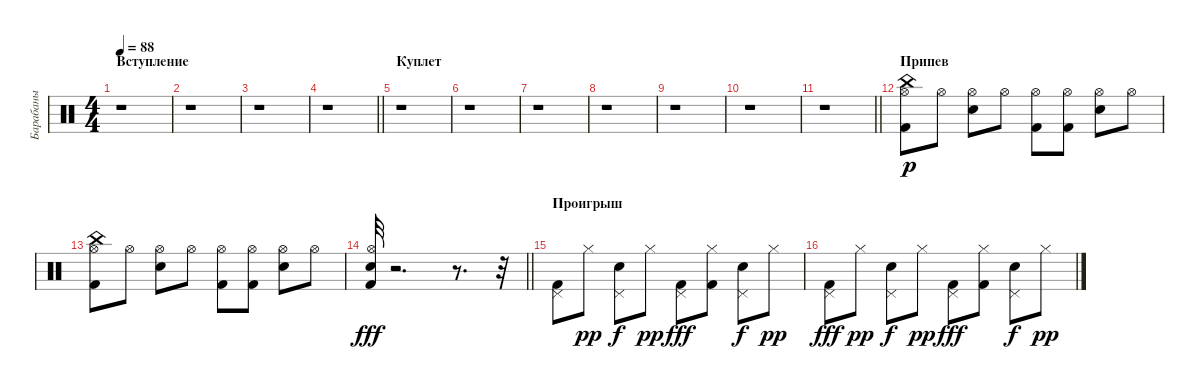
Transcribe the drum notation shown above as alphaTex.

\track ("Барабаны" "Барабаны") {instrument percussion}
\staff {score}
\articulation defaults
\ts (4 4)
\section ("" "Вступление")
\tempo 88
\clef neutral
\ks c
r.1{dy p} |
r.1 |
r.1 |
\barLineRight lightlight
r.1 |
\section ("" "Куплет")
r.1 |
r.1 |
r.1 |
r.1 |
r.1 |
r.1 |
\barLineRight lightlight
r.1 |
\section ("" "Припев")
("China (hit)" "Kick (hit) 2" "Hi-Hat (open)").8 "Hi-Hat (open)".8 ("Electric Snare (hit)" "Hi-Hat (open)").8 "Hi-Hat (open)".8 ("Kick (hit) 2" "Hi-Hat (open)").8 ("Kick (hit) 2" "Hi-Hat (open)").8 ("Electric Snare (hit)" "Hi-Hat (open)").8 "Hi-Hat (open)".8 |
("China (hit)" "Kick (hit) 2" "Hi-Hat (open)").8 "Hi-Hat (open)".8 ("Electric Snare (hit)" "Hi-Hat (open)").8 "Hi-Hat (open)".8 ("Kick (hit) 2" "Hi-Hat (open)").8 ("Kick (hit) 2" "Hi-Hat (open)").8 ("Electric Snare (hit)" "Hi-Hat (open)").8 "Hi-Hat (open)".8 |
\barLineRight lightlight
("Electric Snare (hit)" "Kick (hit) 2" "Hi-Hat (open)").32{dy fff} r.2{d} r.8{d} r.32 |
\section ("" "Проигрыш")
("Pedal Hi-Hat (hit)" "Kick (hit) 2").8 "Hi-Hat (closed)".8{dy pp} ("Pedal Hi-Hat (hit)" "Electric Snare (hit)").8{dy f} "Hi-Hat (closed)".8{dy pp} ("Pedal Hi-Hat (hit)" "Kick (hit) 2").8{dy fff} ("Hi-Hat (closed)" "Kick (hit) 2").8 ("Pedal Hi-Hat (hit)" "Electric Snare (hit)").8{dy f} "Hi-Hat (closed)".8{dy pp} |
("Pedal Hi-Hat (hit)" "Kick (hit) 2").8{dy fff} "Hi-Hat (closed)".8{dy pp} ("Pedal Hi-Hat (hit)" "Electric Snare (hit)").8{dy f} "Hi-Hat (closed)".8{dy pp} ("Pedal Hi-Hat (hit)" "Kick (hit) 2").8{dy fff} ("Hi-Hat (closed)" "Kick (hit) 2").8 ("Pedal Hi-Hat (hit)" "Electric Snare (hit)").8{dy f} "Hi-Hat (closed)".8{dy pp}
